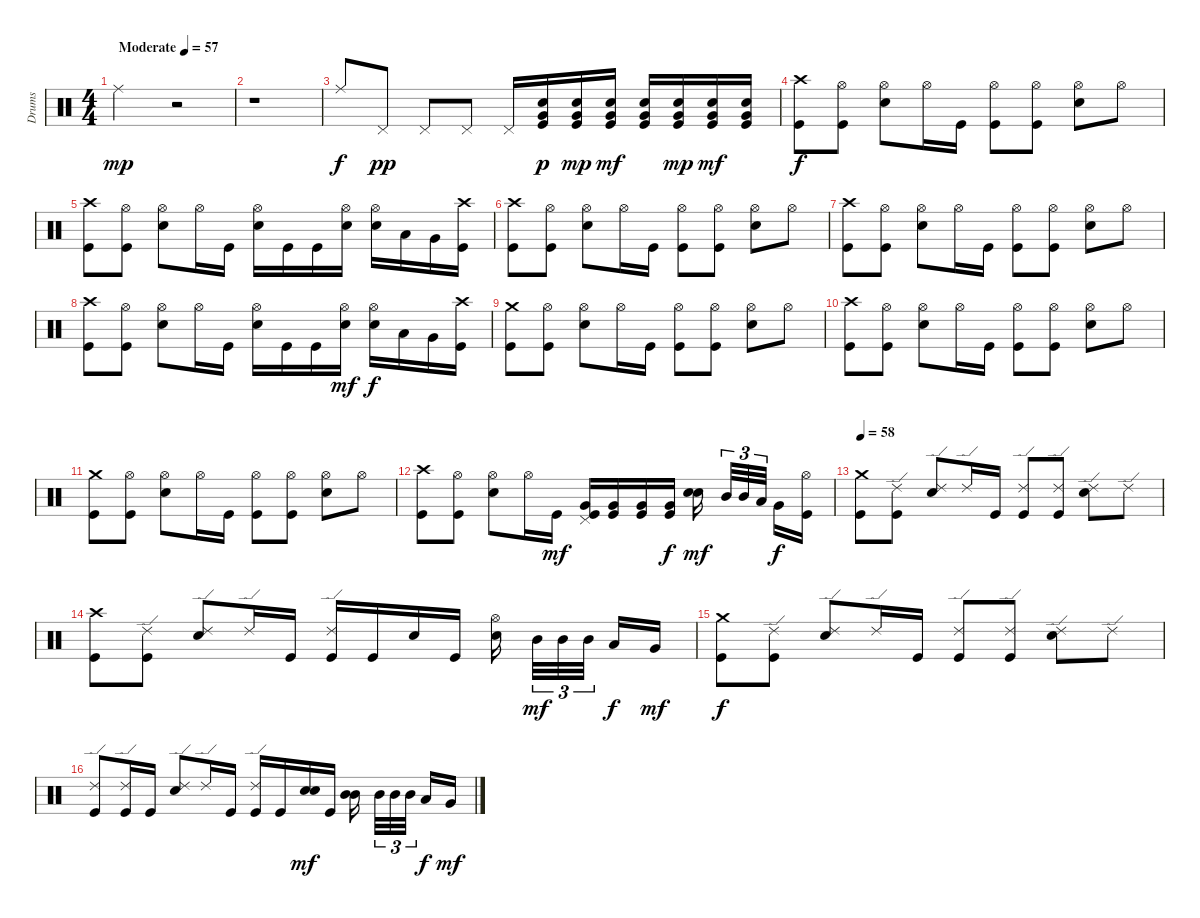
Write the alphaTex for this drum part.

\track ("Drums" "Drums") {instrument percussion}
\staff {score}
\articulation defaults
\ts (4 4)
\tempo (57 "Moderate")
\clef neutral
\ks c "Ride (middle)".2{dy mp}
r.2 |
r.1 |
"Ride (middle)".8{dy f} "Pedal Hi-Hat (hit)".8{dy pp} "Pedal Hi-Hat (hit)".8 "Pedal Hi-Hat (hit)".8 "Pedal Hi-Hat (hit)".16 ("Electric Snare (hit)" "Very Low Tom (hit)" "Kick (hit)").16{dy p} ("Electric Snare (hit)" "Very Low Tom (hit)" "Kick (hit)").16{dy mp} ("Electric Snare (hit)" "Very Low Tom (hit)" "Kick (hit)").16{dy mf} ("Electric Snare (hit)" "Very Low Tom (hit)" "Kick (hit)").16 ("Electric Snare (hit)" "Very Low Tom (hit)" "Kick (hit)").16{dy mp} ("Electric Snare (hit)" "Very Low Tom (hit)" "Kick (hit)").16{dy mf} ("Electric Snare (hit)" "Very Low Tom (hit)" "Kick (hit)").16 |
("Crash high (hit)" "Kick (hit)").8{dy f} ("Hi-Hat (open)" "Kick (hit)").8 ("Hi-Hat (open)" "Electric Snare (hit)").8 "Hi-Hat (open)".16 "Kick (hit)".16 ("Hi-Hat (open)" "Kick (hit)").8 ("Hi-Hat (open)" "Kick (hit)").8 ("Hi-Hat (open)" "Electric Snare (hit)").8 "Hi-Hat (open)".8 |
("Crash high (hit)" "Kick (hit)").8 ("Hi-Hat (open)" "Kick (hit)").8 ("Hi-Hat (open)" "Electric Snare (hit)").8 "Hi-Hat (open)".16 "Kick (hit)".16 ("Hi-Hat (open)" "Electric Snare (hit)").16 "Kick (hit)".16 "Kick (hit)".16 ("Hi-Hat (open)" "Electric Snare (hit)").16 ("Hi-Hat (open)" "Electric Snare (hit)").16 "Low Tom (hit)".16 "Very Low Tom (hit)".16 ("Crash high (hit)" "Kick (hit)").16 |
("Crash high (hit)" "Kick (hit)").8 ("Hi-Hat (open)" "Kick (hit)").8 ("Hi-Hat (open)" "Electric Snare (hit)").8 "Hi-Hat (open)".16 "Kick (hit)".16 ("Hi-Hat (open)" "Kick (hit)").8 ("Hi-Hat (open)" "Kick (hit)").8 ("Hi-Hat (open)" "Electric Snare (hit)").8 "Hi-Hat (open)".8 |
("Crash high (hit)" "Kick (hit)").8 ("Hi-Hat (open)" "Kick (hit)").8 ("Hi-Hat (open)" "Electric Snare (hit)").8 "Hi-Hat (open)".16 "Kick (hit)".16 ("Hi-Hat (open)" "Kick (hit)").8 ("Hi-Hat (open)" "Kick (hit)").8 ("Hi-Hat (open)" "Electric Snare (hit)").8 "Hi-Hat (open)".8 |
("Crash high (hit)" "Kick (hit)").8 ("Hi-Hat (open)" "Kick (hit)").8 ("Hi-Hat (open)" "Electric Snare (hit)").8 "Hi-Hat (open)".16 "Kick (hit)".16 ("Hi-Hat (open)" "Electric Snare (hit)").16 "Kick (hit)".16 "Kick (hit)".16 ("Hi-Hat (open)" "Electric Snare (hit)").16{dy mf} ("Hi-Hat (open)" "Electric Snare (hit)").16{dy f} "Low Tom (hit)".16 "Very Low Tom (hit)".16 ("Crash high (hit)" "Kick (hit)").16 |
("Crash medium (hit)" "Kick (hit)").8 ("Hi-Hat (open)" "Kick (hit)").8 ("Hi-Hat (open)" "Electric Snare (hit)").8 "Hi-Hat (open)".16 "Kick (hit)".16 ("Hi-Hat (open)" "Kick (hit)").8 ("Hi-Hat (open)" "Kick (hit)").8 ("Hi-Hat (open)" "Electric Snare (hit)").8 "Hi-Hat (open)".8 |
("Crash high (hit)" "Kick (hit)").8 ("Hi-Hat (open)" "Kick (hit)").8 ("Hi-Hat (open)" "Electric Snare (hit)").8 "Hi-Hat (open)".16 "Kick (hit)".16 ("Hi-Hat (open)" "Kick (hit)").8 ("Hi-Hat (open)" "Kick (hit)").8 ("Hi-Hat (open)" "Electric Snare (hit)").8 "Hi-Hat (open)".8 |
("Crash medium (hit)" "Kick (hit)").8 ("Hi-Hat (open)" "Kick (hit)").8 ("Hi-Hat (open)" "Electric Snare (hit)").8 "Hi-Hat (open)".16 "Kick (hit)".16 ("Hi-Hat (open)" "Kick (hit)").8 ("Hi-Hat (open)" "Kick (hit)").8 ("Hi-Hat (open)" "Electric Snare (hit)").8 "Hi-Hat (open)".8 |
("Crash high (hit)" "Kick (hit)").8 ("Hi-Hat (open)" "Kick (hit)").8 ("Hi-Hat (open)" "Electric Snare (hit)").8 "Hi-Hat (open)".16 "Kick (hit)".16{dy mf} ("Very Low Tom (hit)" "Pedal Hi-Hat (hit)" "Kick (hit)").16 ("Very Low Tom (hit)" "Kick (hit)").16 ("Very Low Tom (hit)" "Kick (hit)").16 ("Very Low Tom (hit)" "Kick (hit)").16{dy f} ("Electric Snare (hit)" "Electric Snare (hit)").16{bd 60 dy mf beam splitsecondary} "Mid Tom (hit)".32{tu (3 2)} "Mid Tom (hit)".32{tu (3 2)} "Low Tom (hit)".32{tu (3 2) beam splitsecondary} "Very Low Tom (hit)".16{dy f} ("Hi-Hat (open)" "Kick (hit)").16 |
\tempo 58
("Crash medium (hit)" "Kick (hit)").8 ("Ride (edge) 2" "Kick (hit)").8 ("Ride (edge) 2" "Electric Snare (hit)").8 "Ride (edge) 2".16 "Kick (hit)".16 ("Ride (edge) 2" "Kick (hit)").8 ("Ride (edge) 2" "Kick (hit)").8 ("Ride (edge) 2" "Electric Snare (hit)").8 "Ride (edge) 2".8 |
("Crash high (hit)" "Kick (hit)").8 ("Ride (edge) 2" "Kick (hit)").8 ("Ride (edge) 2" "Electric Snare (hit)").8 "Ride (edge) 2".16 "Kick (hit)".16 ("Ride (edge) 2" "Kick (hit)").16 "Kick (hit)".16 "Electric Snare (hit)".16 "Kick (hit)".16 ("Hi-Hat (open)" "Electric Snare (hit)").16{beam splitsecondary} "Mid Tom (hit)".32{tu (3 2) dy mf} "Mid Tom (hit)".32{tu (3 2)} "Mid Tom (hit)".32{tu (3 2) beam splitsecondary} "Low Tom (hit)".16{dy f} "Very Low Tom (hit)".16{dy mf} |
("Crash medium (hit)" "Kick (hit)").8{dy f} ("Ride (edge) 2" "Kick (hit)").8 ("Ride (edge) 2" "Electric Snare (hit)").8 "Ride (edge) 2".16 "Kick (hit)".16 ("Ride (edge) 2" "Kick (hit)").8 ("Ride (edge) 2" "Kick (hit)").8 ("Ride (edge) 2" "Electric Snare (hit)").8 "Ride (edge) 2".8 |
("Ride (edge) 2" "Kick (hit)").8 ("Ride (edge) 2" "Kick (hit)").16 "Kick (hit)".16 ("Ride (edge) 2" "Electric Snare (hit)").8 "Ride (edge) 2".16 "Kick (hit)".16 ("Ride (edge) 2" "Kick (hit)").16 "Kick (hit)".16 ("Electric Snare (hit)" "Electric Snare (hit)").16{bd 120 dy mf} "Kick (hit)".16 ("Mid Tom (hit)" "Mid Tom (hit)").16{bd 120 beam splitsecondary} "Mid Tom (hit)".32{tu (3 2)} "Mid Tom (hit)".32{tu (3 2)} "Mid Tom (hit)".32{tu (3 2) beam splitsecondary} "Low Tom (hit)".16{dy f} "Very Low Tom (hit)".16{dy mf}
